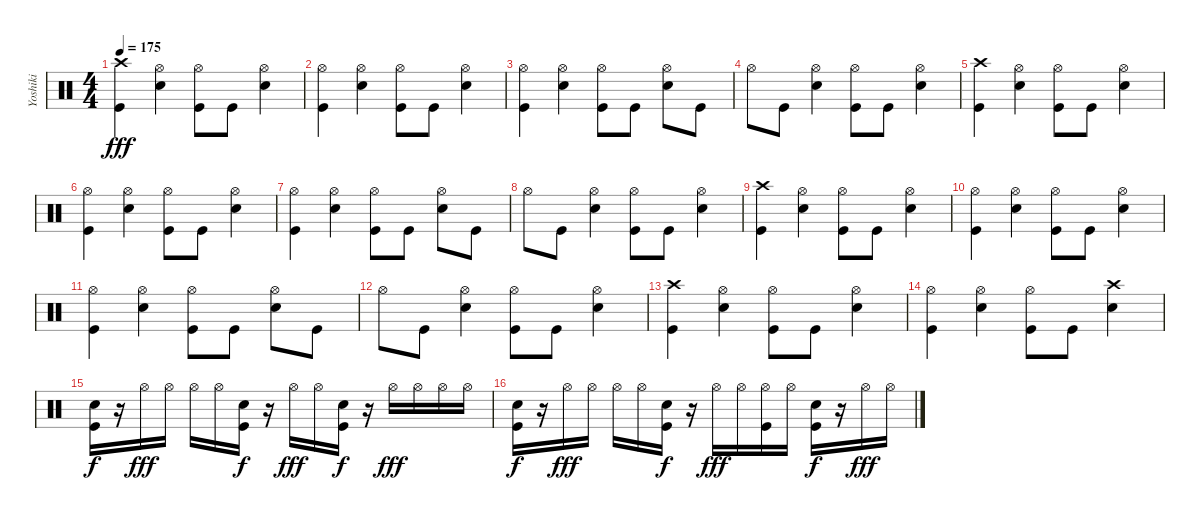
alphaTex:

\track ("Yoshiki" "Yoshiki") {instrument percussion}
\staff {score}
\articulation defaults
\ts (4 4)
\tempo 175
\clef neutral
\ks c
("Crash high (hit)" "Kick (hit)").4{dy fff} ("Hi-Hat (open)" "Snare (hit) 2").4 ("Hi-Hat (open)" "Kick (hit)").8 "Kick (hit)".8 ("Hi-Hat (open)" "Snare (hit) 2").4 |
("Hi-Hat (open)" "Kick (hit)").4 ("Hi-Hat (open)" "Snare (hit) 2").4 ("Hi-Hat (open)" "Kick (hit)").8 "Kick (hit)".8 ("Hi-Hat (open)" "Snare (hit) 2").4 |
("Hi-Hat (open)" "Kick (hit)").4 ("Hi-Hat (open)" "Snare (hit) 2").4 ("Hi-Hat (open)" "Kick (hit)").8 "Kick (hit)".8 ("Hi-Hat (open)" "Snare (hit) 2").8 "Kick (hit)".8 |
"Hi-Hat (open)".8 "Kick (hit)".8 ("Hi-Hat (open)" "Snare (hit) 2").4 ("Hi-Hat (open)" "Kick (hit)").8 "Kick (hit)".8 ("Hi-Hat (open)" "Snare (hit) 2").4 |
("Crash high (hit)" "Kick (hit)").4 ("Hi-Hat (open)" "Snare (hit) 2").4 ("Hi-Hat (open)" "Kick (hit)").8 "Kick (hit)".8 ("Hi-Hat (open)" "Snare (hit) 2").4 |
("Hi-Hat (open)" "Kick (hit)").4 ("Hi-Hat (open)" "Snare (hit) 2").4 ("Hi-Hat (open)" "Kick (hit)").8 "Kick (hit)".8 ("Hi-Hat (open)" "Snare (hit) 2").4 |
("Hi-Hat (open)" "Kick (hit)").4 ("Hi-Hat (open)" "Snare (hit) 2").4 ("Hi-Hat (open)" "Kick (hit)").8 "Kick (hit)".8 ("Hi-Hat (open)" "Snare (hit) 2").8 "Kick (hit)".8 |
"Hi-Hat (open)".8 "Kick (hit)".8 ("Hi-Hat (open)" "Snare (hit) 2").4 ("Hi-Hat (open)" "Kick (hit)").8 "Kick (hit)".8 ("Hi-Hat (open)" "Snare (hit) 2").4 |
("Crash high (hit)" "Kick (hit)").4 ("Hi-Hat (open)" "Snare (hit) 2").4 ("Hi-Hat (open)" "Kick (hit)").8 "Kick (hit)".8 ("Hi-Hat (open)" "Snare (hit) 2").4 |
("Hi-Hat (open)" "Kick (hit)").4 ("Hi-Hat (open)" "Snare (hit) 2").4 ("Hi-Hat (open)" "Kick (hit)").8 "Kick (hit)".8 ("Hi-Hat (open)" "Snare (hit) 2").4 |
("Hi-Hat (open)" "Kick (hit)").4 ("Hi-Hat (open)" "Snare (hit) 2").4 ("Hi-Hat (open)" "Kick (hit)").8 "Kick (hit)".8 ("Hi-Hat (open)" "Snare (hit) 2").8 "Kick (hit)".8 |
"Hi-Hat (open)".8 "Kick (hit)".8 ("Hi-Hat (open)" "Snare (hit) 2").4 ("Hi-Hat (open)" "Kick (hit)").8 "Kick (hit)".8 ("Hi-Hat (open)" "Snare (hit) 2").4 |
("Crash high (hit)" "Kick (hit)").4 ("Hi-Hat (open)" "Snare (hit) 2").4 ("Hi-Hat (open)" "Kick (hit)").8 "Kick (hit)".8 ("Hi-Hat (open)" "Snare (hit) 2").4 |
("Hi-Hat (open)" "Kick (hit)").4 ("Hi-Hat (open)" "Snare (hit) 2").4 ("Hi-Hat (open)" "Kick (hit)").8 "Kick (hit)".8 ("Crash high (hit)" "Snare (hit) 2").4 |
("Snare (hit) 2" "Kick (hit)").16{dy f} r.16 "Hi-Hat (open)".16{dy fff} "Hi-Hat (open)".16 "Hi-Hat (open)".16 "Hi-Hat (open)".16 ("Snare (hit) 2" "Kick (hit)").16{dy f} r.16 "Hi-Hat (open)".16{dy fff} "Hi-Hat (open)".16 ("Snare (hit) 2" "Kick (hit)").16{dy f} r.16 "Hi-Hat (open)".16{dy fff} "Hi-Hat (open)".16 "Hi-Hat (open)".16 "Hi-Hat (open)".16 |
("Snare (hit) 2" "Kick (hit)").16{dy f} r.16 "Hi-Hat (open)".16{dy fff} "Hi-Hat (open)".16 "Hi-Hat (open)".16 "Hi-Hat (open)".16 ("Snare (hit) 2" "Kick (hit)").16{dy f} r.16 "Hi-Hat (open)".16{dy fff} "Hi-Hat (open)".16 ("Hi-Hat (open)" "Kick (hit)").16 "Hi-Hat (open)".16 ("Snare (hit) 2" "Kick (hit)").16{dy f} r.16 "Hi-Hat (open)".16{dy fff} "Hi-Hat (open)".16
